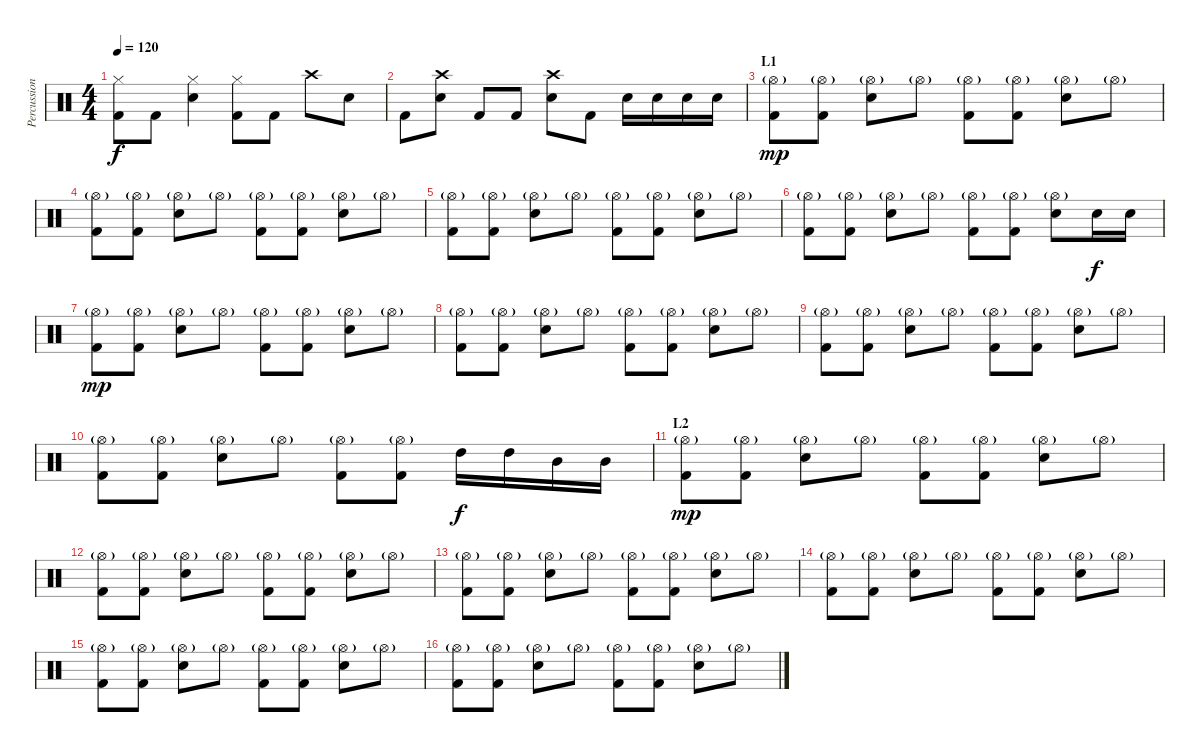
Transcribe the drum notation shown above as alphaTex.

\track ("Percussion" "Percussion") {instrument percussion}
\staff {score}
\articulation defaults
\ts (4 4)
\tempo 120
\clef neutral
\ks c
("Hi-Hat (closed)" "Kick (hit) 2").8{dy f} "Kick (hit) 2".8 ("Hi-Hat (closed)" "Snare (hit) 2").4 ("Hi-Hat (closed)" "Kick (hit) 2").8 "Kick (hit) 2".8 "Crash high (hit)".8 "Snare (hit) 2".8 |
"Kick (hit) 2".8 ("Crash high (hit)" "Snare (hit) 2").8 "Kick (hit) 2".8 "Kick (hit) 2".8 ("Crash high (hit)" "Snare (hit) 2").8 "Kick (hit) 2".8 "Snare (hit) 2".16 "Snare (hit) 2".16 "Snare (hit) 2".16 "Snare (hit) 2".16 |
\section ("" "L1")
("Hi-Hat (open)"{g} "Kick (hit) 2").8{dy mp} ("Hi-Hat (open)"{g} "Kick (hit) 2").8 ("Hi-Hat (open)"{g} "Snare (hit) 2").8 "Hi-Hat (open)"{g}.8 ("Hi-Hat (open)"{g} "Kick (hit) 2").8 ("Hi-Hat (open)"{g} "Kick (hit) 2").8 ("Hi-Hat (open)"{g} "Snare (hit) 2").8 "Hi-Hat (open)"{g}.8 |
("Hi-Hat (open)"{g} "Kick (hit) 2").8 ("Hi-Hat (open)"{g} "Kick (hit) 2").8 ("Hi-Hat (open)"{g} "Snare (hit) 2").8 "Hi-Hat (open)"{g}.8 ("Hi-Hat (open)"{g} "Kick (hit) 2").8 ("Hi-Hat (open)"{g} "Kick (hit) 2").8 ("Hi-Hat (open)"{g} "Snare (hit) 2").8 "Hi-Hat (open)"{g}.8 |
("Hi-Hat (open)"{g} "Kick (hit) 2").8 ("Hi-Hat (open)"{g} "Kick (hit) 2").8 ("Hi-Hat (open)"{g} "Snare (hit) 2").8 "Hi-Hat (open)"{g}.8 ("Hi-Hat (open)"{g} "Kick (hit) 2").8 ("Hi-Hat (open)"{g} "Kick (hit) 2").8 ("Hi-Hat (open)"{g} "Snare (hit) 2").8 "Hi-Hat (open)"{g}.8 |
("Hi-Hat (open)"{g} "Kick (hit) 2").8 ("Hi-Hat (open)"{g} "Kick (hit) 2").8 ("Hi-Hat (open)"{g} "Snare (hit) 2").8 "Hi-Hat (open)"{g}.8 ("Hi-Hat (open)"{g} "Kick (hit) 2").8 ("Hi-Hat (open)"{g} "Kick (hit) 2").8 ("Hi-Hat (open)"{g} "Snare (hit) 2").8 "Snare (hit) 2".16{dy f} "Snare (hit) 2".16 |
("Hi-Hat (open)"{g} "Kick (hit) 2").8{dy mp} ("Hi-Hat (open)"{g} "Kick (hit) 2").8 ("Hi-Hat (open)"{g} "Snare (hit) 2").8 "Hi-Hat (open)"{g}.8 ("Hi-Hat (open)"{g} "Kick (hit) 2").8 ("Hi-Hat (open)"{g} "Kick (hit) 2").8 ("Hi-Hat (open)"{g} "Snare (hit) 2").8 "Hi-Hat (open)"{g}.8 |
("Hi-Hat (open)"{g} "Kick (hit) 2").8 ("Hi-Hat (open)"{g} "Kick (hit) 2").8 ("Hi-Hat (open)"{g} "Snare (hit) 2").8 "Hi-Hat (open)"{g}.8 ("Hi-Hat (open)"{g} "Kick (hit) 2").8 ("Hi-Hat (open)"{g} "Kick (hit) 2").8 ("Hi-Hat (open)"{g} "Snare (hit) 2").8 "Hi-Hat (open)"{g}.8 |
("Hi-Hat (open)"{g} "Kick (hit) 2").8 ("Hi-Hat (open)"{g} "Kick (hit) 2").8 ("Hi-Hat (open)"{g} "Snare (hit) 2").8 "Hi-Hat (open)"{g}.8 ("Hi-Hat (open)"{g} "Kick (hit) 2").8 ("Hi-Hat (open)"{g} "Kick (hit) 2").8 ("Hi-Hat (open)"{g} "Snare (hit) 2").8 "Hi-Hat (open)"{g}.8 |
("Hi-Hat (open)"{g} "Kick (hit) 2").8 ("Hi-Hat (open)"{g} "Kick (hit) 2").8 ("Hi-Hat (open)"{g} "Snare (hit) 2").8 "Hi-Hat (open)"{g}.8 ("Hi-Hat (open)"{g} "Kick (hit) 2").8 ("Hi-Hat (open)"{g} "Kick (hit) 2").8 "High Tom (hit)".16{dy f} "High Tom (hit)".16 "Mid Tom (hit)".16 "Mid Tom (hit)".16 |
\section ("" "L2")
("Hi-Hat (open)"{g} "Kick (hit) 2").8{dy mp} ("Hi-Hat (open)"{g} "Kick (hit) 2").8 ("Hi-Hat (open)"{g} "Snare (hit) 2").8 "Hi-Hat (open)"{g}.8 ("Hi-Hat (open)"{g} "Kick (hit) 2").8 ("Hi-Hat (open)"{g} "Kick (hit) 2").8 ("Hi-Hat (open)"{g} "Snare (hit) 2").8 "Hi-Hat (open)"{g}.8 |
("Hi-Hat (open)"{g} "Kick (hit) 2").8 ("Hi-Hat (open)"{g} "Kick (hit) 2").8 ("Hi-Hat (open)"{g} "Snare (hit) 2").8 "Hi-Hat (open)"{g}.8 ("Hi-Hat (open)"{g} "Kick (hit) 2").8 ("Hi-Hat (open)"{g} "Kick (hit) 2").8 ("Hi-Hat (open)"{g} "Snare (hit) 2").8 "Hi-Hat (open)"{g}.8 |
("Hi-Hat (open)"{g} "Kick (hit) 2").8 ("Hi-Hat (open)"{g} "Kick (hit) 2").8 ("Hi-Hat (open)"{g} "Snare (hit) 2").8 "Hi-Hat (open)"{g}.8 ("Hi-Hat (open)"{g} "Kick (hit) 2").8 ("Hi-Hat (open)"{g} "Kick (hit) 2").8 ("Hi-Hat (open)"{g} "Snare (hit) 2").8 "Hi-Hat (open)"{g}.8 |
("Hi-Hat (open)"{g} "Kick (hit) 2").8 ("Hi-Hat (open)"{g} "Kick (hit) 2").8 ("Hi-Hat (open)"{g} "Snare (hit) 2").8 "Hi-Hat (open)"{g}.8 ("Hi-Hat (open)"{g} "Kick (hit) 2").8 ("Hi-Hat (open)"{g} "Kick (hit) 2").8 ("Hi-Hat (open)"{g} "Snare (hit) 2").8 "Hi-Hat (open)"{g}.8 |
("Hi-Hat (open)"{g} "Kick (hit) 2").8 ("Hi-Hat (open)"{g} "Kick (hit) 2").8 ("Hi-Hat (open)"{g} "Snare (hit) 2").8 "Hi-Hat (open)"{g}.8 ("Hi-Hat (open)"{g} "Kick (hit) 2").8 ("Hi-Hat (open)"{g} "Kick (hit) 2").8 ("Hi-Hat (open)"{g} "Snare (hit) 2").8 "Hi-Hat (open)"{g}.8 |
("Hi-Hat (open)"{g} "Kick (hit) 2").8 ("Hi-Hat (open)"{g} "Kick (hit) 2").8 ("Hi-Hat (open)"{g} "Snare (hit) 2").8 "Hi-Hat (open)"{g}.8 ("Hi-Hat (open)"{g} "Kick (hit) 2").8 ("Hi-Hat (open)"{g} "Kick (hit) 2").8 ("Hi-Hat (open)"{g} "Snare (hit) 2").8 "Hi-Hat (open)"{g}.8
